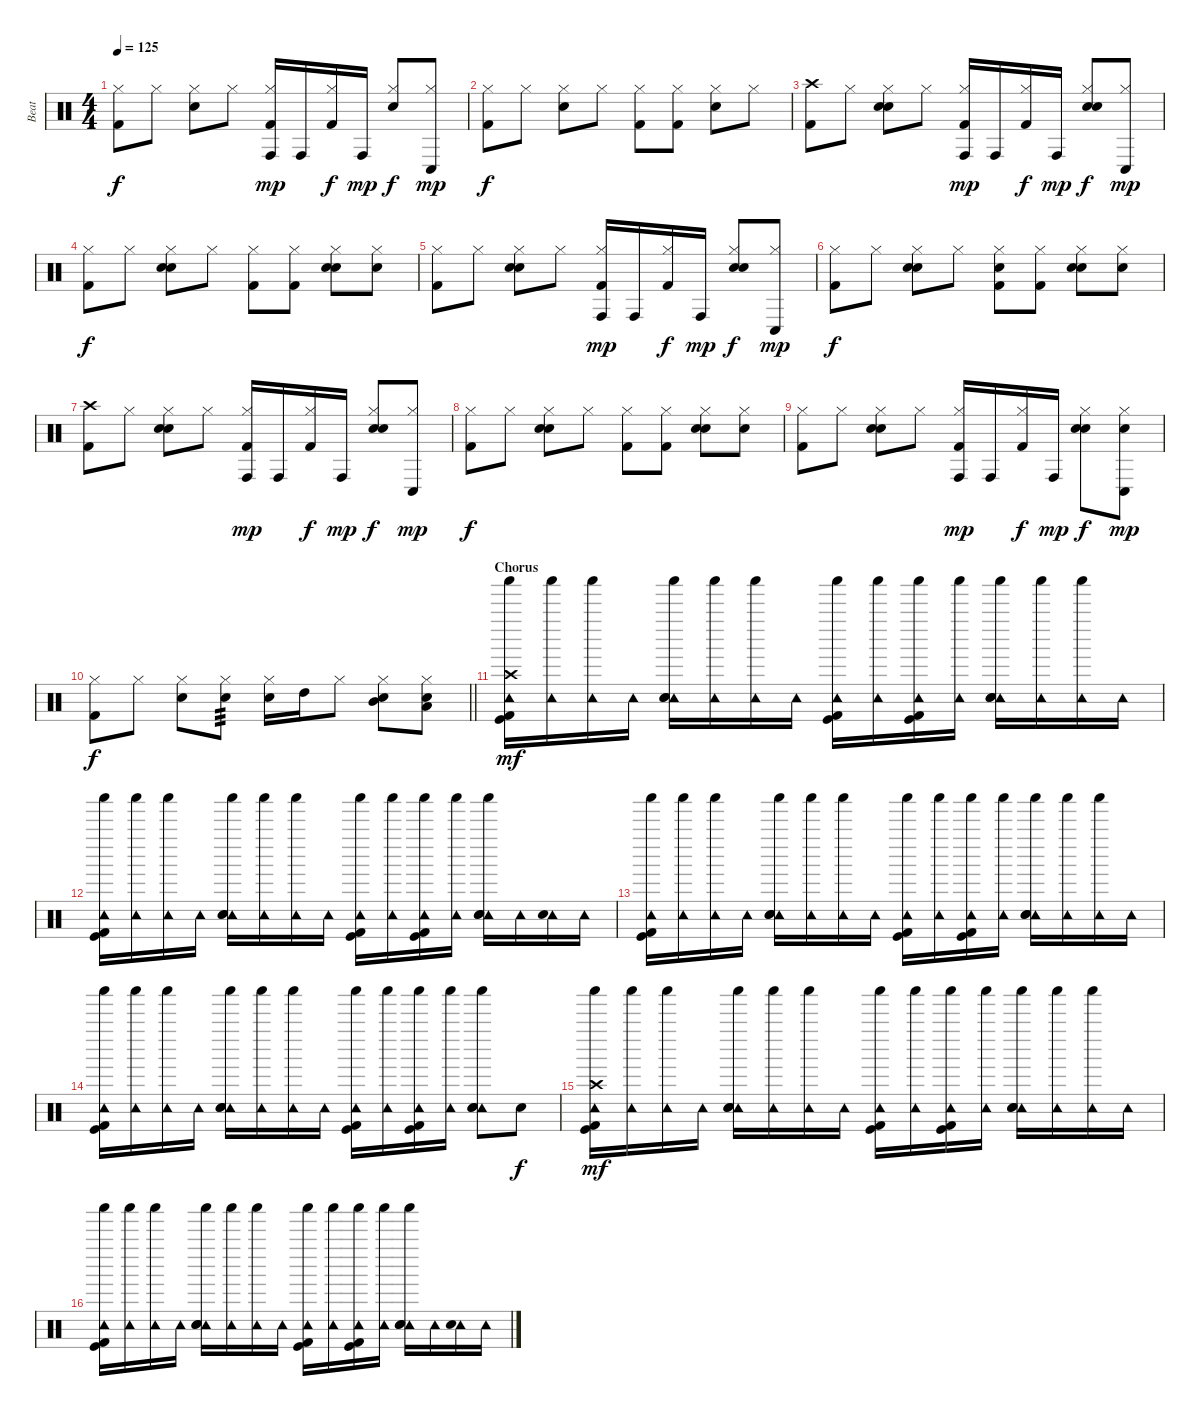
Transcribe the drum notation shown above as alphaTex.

\track ("Beat" "Beat") {instrument percussion}
\staff {score}
\articulation defaults
\ts (4 4)
\tempo 125
\clef neutral
\ks c
("Hi-Hat (closed)" "Kick (hit) 2").8{dy f} "Hi-Hat (closed)".8 ("Hi-Hat (closed)" "Snare (hit) 2").8 "Hi-Hat (closed)".8 ("Conga high (hit)" "Hi-Hat (closed)" "Kick (hit) 2").16{dy mp} "Conga high (hit)".16 ("Hi-Hat (closed)" "Kick (hit) 2").16{dy f} "Conga high (hit)".16{dy mp} ("Hi-Hat (closed)" "Snare (hit) 2").8{dy f} ("Conga low (hit)" "Hi-Hat (closed)").8{dy mp} |
("Hi-Hat (closed)" "Kick (hit) 2").8{dy f} "Hi-Hat (closed)".8 ("Hi-Hat (closed)" "Snare (hit) 2").8 "Hi-Hat (closed)".8 ("Hi-Hat (closed)" "Kick (hit) 2").8 ("Hi-Hat (closed)" "Kick (hit) 2").8 ("Hi-Hat (closed)" "Snare (hit) 2").8 "Hi-Hat (closed)".8 |
("Crash high (hit)" "Kick (hit) 2").8 "Hi-Hat (closed)".8 ("Hi-Hat (closed)" "Snare (hit) 2" "Hand Clap (hit)").8 "Hi-Hat (closed)".8 ("Conga high (hit)" "Hi-Hat (closed)" "Kick (hit) 2").16{dy mp} "Conga high (hit)".16 ("Hi-Hat (closed)" "Kick (hit) 2").16{dy f} "Conga high (hit)".16{dy mp} ("Hi-Hat (closed)" "Snare (hit) 2" "Hand Clap (hit)").8{dy f} ("Conga low (hit)" "Hi-Hat (closed)").8{dy mp} |
("Hi-Hat (closed)" "Kick (hit) 2").8{dy f} "Hi-Hat (closed)".8 ("Hi-Hat (closed)" "Snare (hit) 2" "Hand Clap (hit)").8 "Hi-Hat (closed)".8 ("Hi-Hat (closed)" "Kick (hit) 2").8 ("Hi-Hat (closed)" "Kick (hit) 2").8 ("Hi-Hat (closed)" "Snare (hit) 2" "Hand Clap (hit)").8 ("Hi-Hat (closed)" "Hand Clap (hit)").8 |
("Hi-Hat (closed)" "Kick (hit) 2").8 "Hi-Hat (closed)".8 ("Hi-Hat (closed)" "Snare (hit) 2" "Hand Clap (hit)").8 "Hi-Hat (closed)".8 ("Conga high (hit)" "Hi-Hat (closed)" "Kick (hit) 2").16{dy mp} "Conga high (hit)".16 ("Hi-Hat (closed)" "Kick (hit) 2").16{dy f} "Conga high (hit)".16{dy mp} ("Hi-Hat (closed)" "Snare (hit) 2" "Hand Clap (hit)").8{dy f} ("Conga low (hit)" "Hi-Hat (closed)").8{dy mp} |
("Hi-Hat (closed)" "Kick (hit) 2").8{dy f} "Hi-Hat (closed)".8 ("Hi-Hat (closed)" "Snare (hit) 2" "Hand Clap (hit)").8 "Hi-Hat (closed)".8 ("Hi-Hat (closed)" "Hand Clap (hit)" "Kick (hit) 2").8 ("Hi-Hat (closed)" "Kick (hit) 2").8 ("Hi-Hat (closed)" "Snare (hit) 2" "Hand Clap (hit)").8 ("Hi-Hat (closed)" "Hand Clap (hit)").8 |
("Crash high (hit)" "Kick (hit) 2").8 "Hi-Hat (closed)".8 ("Hi-Hat (closed)" "Snare (hit) 2" "Hand Clap (hit)").8 "Hi-Hat (closed)".8 ("Conga high (hit)" "Hi-Hat (closed)" "Kick (hit) 2").16{dy mp} "Conga high (hit)".16 ("Hi-Hat (closed)" "Kick (hit) 2").16{dy f} "Conga high (hit)".16{dy mp} ("Hi-Hat (closed)" "Snare (hit) 2" "Hand Clap (hit)").8{dy f} ("Conga low (hit)" "Hi-Hat (closed)").8{dy mp} |
("Hi-Hat (closed)" "Kick (hit) 2").8{dy f} "Hi-Hat (closed)".8 ("Hi-Hat (closed)" "Snare (hit) 2" "Hand Clap (hit)").8 "Hi-Hat (closed)".8 ("Hi-Hat (closed)" "Kick (hit) 2").8 ("Hi-Hat (closed)" "Kick (hit) 2").8 ("Hi-Hat (closed)" "Snare (hit) 2" "Hand Clap (hit)").8 ("Hi-Hat (closed)" "Hand Clap (hit)").8 |
("Hi-Hat (closed)" "Kick (hit) 2").8 "Hi-Hat (closed)".8 ("Hi-Hat (closed)" "Snare (hit) 2" "Hand Clap (hit)").8 "Hi-Hat (closed)".8 ("Conga high (hit)" "Hi-Hat (closed)" "Kick (hit) 2").16{dy mp} "Conga high (hit)".16 ("Hi-Hat (closed)" "Kick (hit) 2").16{dy f} "Conga high (hit)".16{dy mp} ("Hi-Hat (closed)" "Snare (hit) 2" "Hand Clap (hit)").8{dy f} ("Conga low (hit)" "Hi-Hat (closed)" "Hand Clap (hit)").8{dy mp} |
\barLineRight lightlight
("Hi-Hat (closed)" "Kick (hit) 2").8{dy f} "Hi-Hat (closed)".8 ("Hi-Hat (closed)" "Hand Clap (hit)").8 ("Hi-Hat (closed)" "Snare (hit) 2").8{tp 3} ("Hi-Hat (closed)" "Snare (hit) 2").16 "High Tom (hit)".16 "Hi-Hat (closed)".8 ("Hi-Hat (closed)" "Mid Tom (hit)" "Hand Clap (hit)").8 ("Hi-Hat (closed)" "Hand Clap (hit)" "Low Tom (hit)").8 |
\section ("" "Chorus")
("Crash high (hit)" "Shaker (hit)" "Tambourine (hit)" "Kick (hit)" "Kick (hit) 2").16{dy mf} ("Shaker (hit)" "Tambourine (hit)").16 ("Shaker (hit)" "Tambourine (hit)").16 "Tambourine (hit)".16 ("Shaker (hit)" "Tambourine (hit)" "Snare (hit) 2" "Hand Clap (hit)").16 ("Shaker (hit)" "Tambourine (hit)").16 ("Shaker (hit)" "Tambourine (hit)").16 "Tambourine (hit)".16 ("Shaker (hit)" "Tambourine (hit)" "Kick (hit)" "Kick (hit) 2").16 ("Shaker (hit)" "Tambourine (hit)").16 ("Shaker (hit)" "Tambourine (hit)" "Kick (hit)" "Kick (hit) 2").16 ("Shaker (hit)" "Tambourine (hit)").16 ("Shaker (hit)" "Tambourine (hit)" "Snare (hit) 2" "Hand Clap (hit)").16 ("Shaker (hit)" "Tambourine (hit)").16 ("Shaker (hit)" "Tambourine (hit)").16 "Tambourine (hit)".16 |
("Shaker (hit)" "Tambourine (hit)" "Kick (hit)" "Kick (hit) 2").16 ("Shaker (hit)" "Tambourine (hit)").16 ("Shaker (hit)" "Tambourine (hit)").16 "Tambourine (hit)".16 ("Shaker (hit)" "Tambourine (hit)" "Snare (hit) 2" "Hand Clap (hit)").16 ("Shaker (hit)" "Tambourine (hit)").16 ("Shaker (hit)" "Tambourine (hit)").16 "Tambourine (hit)".16 ("Shaker (hit)" "Tambourine (hit)" "Kick (hit)" "Kick (hit) 2").16 ("Shaker (hit)" "Tambourine (hit)").16 ("Shaker (hit)" "Tambourine (hit)" "Kick (hit)" "Kick (hit) 2").16 ("Shaker (hit)" "Tambourine (hit)").16 ("Shaker (hit)" "Tambourine (hit)" "Snare (hit) 2" "Hand Clap (hit)").16 "Tambourine (hit)".16 ("Tambourine (hit)" "Hand Clap (hit)").16 "Tambourine (hit)".16 |
("Shaker (hit)" "Tambourine (hit)" "Kick (hit)" "Kick (hit) 2").16 ("Shaker (hit)" "Tambourine (hit)").16 ("Shaker (hit)" "Tambourine (hit)").16 "Tambourine (hit)".16 ("Shaker (hit)" "Tambourine (hit)" "Snare (hit) 2" "Hand Clap (hit)").16 ("Shaker (hit)" "Tambourine (hit)").16 ("Shaker (hit)" "Tambourine (hit)").16 "Tambourine (hit)".16 ("Shaker (hit)" "Tambourine (hit)" "Kick (hit)" "Kick (hit) 2").16 ("Shaker (hit)" "Tambourine (hit)").16 ("Shaker (hit)" "Tambourine (hit)" "Kick (hit)" "Kick (hit) 2").16 ("Shaker (hit)" "Tambourine (hit)").16 ("Shaker (hit)" "Tambourine (hit)" "Snare (hit) 2" "Hand Clap (hit)").16 ("Shaker (hit)" "Tambourine (hit)").16 ("Shaker (hit)" "Tambourine (hit)").16 "Tambourine (hit)".16 |
("Shaker (hit)" "Tambourine (hit)" "Kick (hit)" "Kick (hit) 2").16 ("Shaker (hit)" "Tambourine (hit)").16 ("Shaker (hit)" "Tambourine (hit)").16 "Tambourine (hit)".16 ("Shaker (hit)" "Tambourine (hit)" "Snare (hit) 2" "Hand Clap (hit)").16 ("Shaker (hit)" "Tambourine (hit)").16 ("Shaker (hit)" "Tambourine (hit)").16 "Tambourine (hit)".16 ("Shaker (hit)" "Tambourine (hit)" "Kick (hit)" "Kick (hit) 2").16 ("Shaker (hit)" "Tambourine (hit)").16 ("Shaker (hit)" "Tambourine (hit)" "Kick (hit)" "Kick (hit) 2").16 ("Shaker (hit)" "Tambourine (hit)").16 ("Shaker (hit)" "Tambourine (hit)" "Snare (hit) 2" "Hand Clap (hit)").8 "Hand Clap (hit)".8{dy f} |
("Crash high (hit)" "Shaker (hit)" "Tambourine (hit)" "Kick (hit)" "Kick (hit) 2").16{dy mf} ("Shaker (hit)" "Tambourine (hit)").16 ("Shaker (hit)" "Tambourine (hit)").16 "Tambourine (hit)".16 ("Shaker (hit)" "Tambourine (hit)" "Snare (hit) 2" "Hand Clap (hit)").16 ("Shaker (hit)" "Tambourine (hit)").16 ("Shaker (hit)" "Tambourine (hit)").16 "Tambourine (hit)".16 ("Shaker (hit)" "Tambourine (hit)" "Kick (hit)" "Kick (hit) 2").16 ("Shaker (hit)" "Tambourine (hit)").16 ("Shaker (hit)" "Tambourine (hit)" "Kick (hit)" "Kick (hit) 2").16 ("Shaker (hit)" "Tambourine (hit)").16 ("Shaker (hit)" "Tambourine (hit)" "Snare (hit) 2" "Hand Clap (hit)").16 ("Shaker (hit)" "Tambourine (hit)").16 ("Shaker (hit)" "Tambourine (hit)").16 "Tambourine (hit)".16 |
("Shaker (hit)" "Tambourine (hit)" "Kick (hit)" "Kick (hit) 2").16 ("Shaker (hit)" "Tambourine (hit)").16 ("Shaker (hit)" "Tambourine (hit)").16 "Tambourine (hit)".16 ("Shaker (hit)" "Tambourine (hit)" "Snare (hit) 2" "Hand Clap (hit)").16 ("Shaker (hit)" "Tambourine (hit)").16 ("Shaker (hit)" "Tambourine (hit)").16 "Tambourine (hit)".16 ("Shaker (hit)" "Tambourine (hit)" "Kick (hit)" "Kick (hit) 2").16 ("Shaker (hit)" "Tambourine (hit)").16 ("Shaker (hit)" "Tambourine (hit)" "Kick (hit)" "Kick (hit) 2").16 ("Shaker (hit)" "Tambourine (hit)").16 ("Shaker (hit)" "Tambourine (hit)" "Snare (hit) 2" "Hand Clap (hit)").16 "Tambourine (hit)".16 ("Tambourine (hit)" "Hand Clap (hit)").16 "Tambourine (hit)".16
